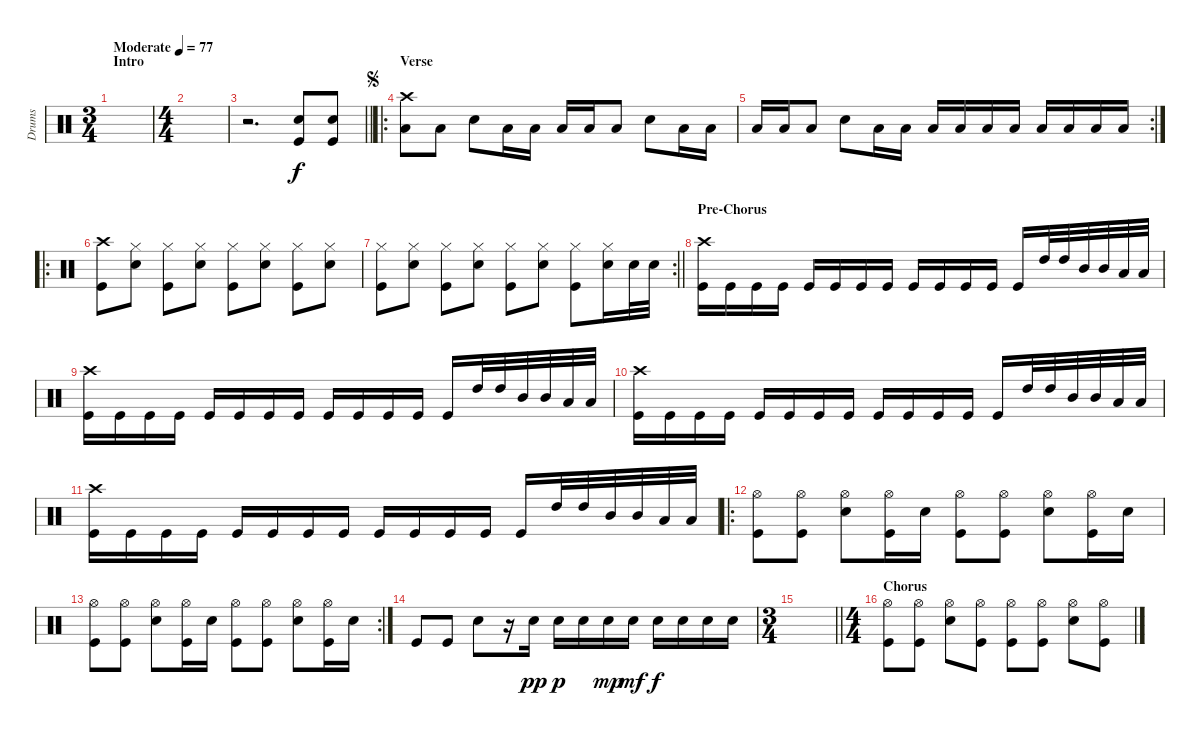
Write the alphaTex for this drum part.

\track ("Drums" "Drums") {instrument percussion}
\staff {score}
\articulation defaults
\ts (3 4)
\section ("" "Intro")
\tempo (77 "Moderate")
\clef neutral
\ks c
|
\ts (4 4)
|
\barLineRight lightlight
r.2{d} ("Snare (hit) 2" "Kick (hit)").8 ("Snare (hit) 2" "Kick (hit)").8 |
\ro
\section ("" "Verse")
\jump segno
("Crash high (hit)" "Low Tom (hit)").8 "Low Tom (hit)".8 "Snare (hit) 2".8 "Low Tom (hit)".16 "Low Tom (hit)".16 "Low Tom (hit)".16 "Low Tom (hit)".16 "Low Tom (hit)".8 "Snare (hit) 2".8 "Low Tom (hit)".16 "Low Tom (hit)".16 |
\rc 2 "Low Tom (hit)".16 "Low Tom (hit)".16 "Low Tom (hit)".8 "Snare (hit) 2".8 "Low Tom (hit)".16 "Low Tom (hit)".16 "Low Tom (hit)".16 "Low Tom (hit)".16 "Low Tom (hit)".16 "Low Tom (hit)".16 "Low Tom (hit)".16 "Low Tom (hit)".16 "Low Tom (hit)".16 "Low Tom (hit)".16
|
\ro
("Crash high (hit)" "Kick (hit)").8 ("Hi-Hat (closed)" "Snare (hit) 2").8 ("Hi-Hat (closed)" "Kick (hit)").8 ("Hi-Hat (closed)" "Snare (hit) 2").8 ("Hi-Hat (closed)" "Kick (hit)").8 ("Hi-Hat (closed)" "Snare (hit) 2").8 ("Hi-Hat (closed)" "Kick (hit)").8 ("Hi-Hat (closed)" "Snare (hit) 2").8 |
\rc 2
\barLineRight lightlight
("Hi-Hat (closed)" "Kick (hit)").8 ("Hi-Hat (closed)" "Snare (hit) 2").8 ("Hi-Hat (closed)" "Kick (hit)").8 ("Hi-Hat (closed)" "Snare (hit) 2").8 ("Hi-Hat (closed)" "Kick (hit)").8 ("Hi-Hat (closed)" "Snare (hit) 2").8 ("Hi-Hat (closed)" "Kick (hit)").8 ("Hi-Hat (closed)" "Snare (hit) 2").16 "Snare (hit) 2".32 "Snare (hit) 2".32 |
\section ("" "Pre-Chorus")
("Crash high (hit)" "Kick (hit)").16 "Kick (hit)".16 "Kick (hit)".16 "Kick (hit)".16 "Kick (hit)".16 "Kick (hit)".16 "Kick (hit)".16 "Kick (hit)".16 "Kick (hit)".16 "Kick (hit)".16 "Kick (hit)".16 "Kick (hit)".16 "Kick (hit)".16 "High Tom (hit)".32 "High Tom (hit)".32 "Mid Tom (hit)".32 "Mid Tom (hit)".32 "Low Tom (hit)".32 "Low Tom (hit)".32 |
("Crash high (hit)" "Kick (hit)").16 "Kick (hit)".16 "Kick (hit)".16 "Kick (hit)".16 "Kick (hit)".16 "Kick (hit)".16 "Kick (hit)".16 "Kick (hit)".16 "Kick (hit)".16 "Kick (hit)".16 "Kick (hit)".16 "Kick (hit)".16 "Kick (hit)".16 "High Tom (hit)".32 "High Tom (hit)".32 "Mid Tom (hit)".32 "Mid Tom (hit)".32 "Low Tom (hit)".32 "Low Tom (hit)".32 |
("Crash high (hit)" "Kick (hit)").16 "Kick (hit)".16 "Kick (hit)".16 "Kick (hit)".16 "Kick (hit)".16 "Kick (hit)".16 "Kick (hit)".16 "Kick (hit)".16 "Kick (hit)".16 "Kick (hit)".16 "Kick (hit)".16 "Kick (hit)".16 "Kick (hit)".16 "High Tom (hit)".32 "High Tom (hit)".32 "Mid Tom (hit)".32 "Mid Tom (hit)".32 "Low Tom (hit)".32 "Low Tom (hit)".32 |
("Crash high (hit)" "Kick (hit)").16 "Kick (hit)".16 "Kick (hit)".16 "Kick (hit)".16 "Kick (hit)".16 "Kick (hit)".16 "Kick (hit)".16 "Kick (hit)".16 "Kick (hit)".16 "Kick (hit)".16 "Kick (hit)".16 "Kick (hit)".16 "Kick (hit)".16 "High Tom (hit)".32 "High Tom (hit)".32 "Mid Tom (hit)".32 "Mid Tom (hit)".32 "Low Tom (hit)".32 "Low Tom (hit)".32 |
\ro
("Hi-Hat (open)" "Kick (hit)").8 ("Hi-Hat (open)" "Kick (hit)").8 ("Hi-Hat (open)" "Snare (hit) 2").8 ("Hi-Hat (open)" "Kick (hit)").16 "Snare (hit) 2".16 ("Hi-Hat (open)" "Kick (hit)").8 ("Hi-Hat (open)" "Kick (hit)").8 ("Hi-Hat (open)" "Snare (hit) 2").8 ("Hi-Hat (open)" "Kick (hit)").16 "Snare (hit) 2".16 |
\rc 2
("Hi-Hat (open)" "Kick (hit)").8 ("Hi-Hat (open)" "Kick (hit)").8 ("Hi-Hat (open)" "Snare (hit) 2").8 ("Hi-Hat (open)" "Kick (hit)").16 "Snare (hit) 2".16 ("Hi-Hat (open)" "Kick (hit)").8 ("Hi-Hat (open)" "Kick (hit)").8 ("Hi-Hat (open)" "Snare (hit) 2").8 ("Hi-Hat (open)" "Kick (hit)").16 "Snare (hit) 2".16 |
"Kick (hit)".8 "Kick (hit)".8 "Snare (hit) 2".8 r.16 "Snare (hit) 2".16{dy pp} "Snare (hit) 2".16{dy p} "Snare (hit) 2".16 "Snare (hit) 2".16{dy mp} "Snare (hit) 2".16{dy mf} "Snare (hit) 2".16{dy f} "Snare (hit) 2".16 "Snare (hit) 2".16 "Snare (hit) 2".16 |
\ts (3 4)
\barLineRight lightlight
|
\ts (4 4)
\section ("" "Chorus")
("Hi-Hat (open)" "Kick (hit)").8 ("Hi-Hat (open)" "Kick (hit)").8 ("Hi-Hat (open)" "Snare (hit) 2").8 ("Hi-Hat (open)" "Kick (hit)").8 ("Hi-Hat (open)" "Kick (hit)").8 ("Hi-Hat (open)" "Kick (hit)").8 ("Hi-Hat (open)" "Snare (hit) 2").8 ("Hi-Hat (open)" "Kick (hit)").8
